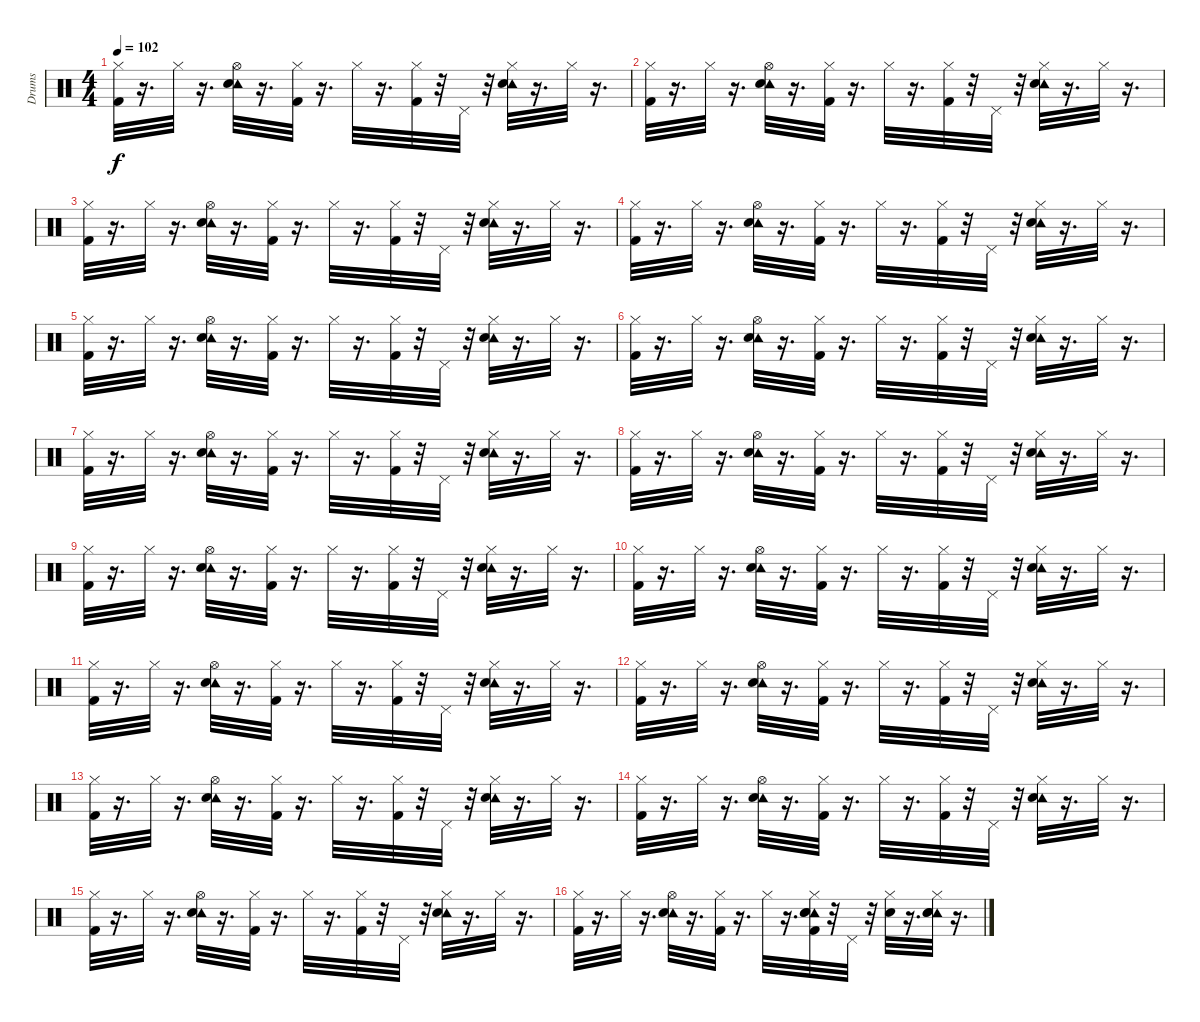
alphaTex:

\track ("Drums" "Drums") {instrument percussion}
\staff {score}
\articulation defaults
\ts (4 4)
\tempo 102
\clef neutral
\ks c
("Hi-Hat (closed)" "Kick (hit) 2").32{dy f} r.16{d} "Hi-Hat (closed)".32 r.16{d} ("Tambourine (hit)" "Hi-Hat (open)" "Electric Snare (hit)").32 r.16{d} ("Hi-Hat (closed)" "Kick (hit) 2").32 r.16{d} "Hi-Hat (closed)".32 r.16{d} ("Hi-Hat (closed)" "Kick (hit) 2").32 r.32 "Pedal Hi-Hat (hit)".32 r.32 ("Tambourine (hit)" "Hi-Hat (closed)" "Electric Snare (hit)").32 r.16{d} "Hi-Hat (closed)".32 r.16{d} |
("Hi-Hat (closed)" "Kick (hit) 2").32 r.16{d} "Hi-Hat (closed)".32 r.16{d} ("Tambourine (hit)" "Hi-Hat (open)" "Electric Snare (hit)").32 r.16{d} ("Hi-Hat (closed)" "Kick (hit) 2").32 r.16{d} "Hi-Hat (closed)".32 r.16{d} ("Hi-Hat (closed)" "Kick (hit) 2").32 r.32 "Pedal Hi-Hat (hit)".32 r.32 ("Tambourine (hit)" "Hi-Hat (closed)" "Electric Snare (hit)").32 r.16{d} "Hi-Hat (closed)".32 r.16{d} |
("Hi-Hat (closed)" "Kick (hit) 2").32 r.16{d} "Hi-Hat (closed)".32 r.16{d} ("Tambourine (hit)" "Hi-Hat (open)" "Electric Snare (hit)").32 r.16{d} ("Hi-Hat (closed)" "Kick (hit) 2").32 r.16{d} "Hi-Hat (closed)".32 r.16{d} ("Hi-Hat (closed)" "Kick (hit) 2").32 r.32 "Pedal Hi-Hat (hit)".32 r.32 ("Tambourine (hit)" "Hi-Hat (closed)" "Electric Snare (hit)").32 r.16{d} "Hi-Hat (closed)".32 r.16{d} |
("Hi-Hat (closed)" "Kick (hit) 2").32 r.16{d} "Hi-Hat (closed)".32 r.16{d} ("Tambourine (hit)" "Hi-Hat (open)" "Electric Snare (hit)").32 r.16{d} ("Hi-Hat (closed)" "Kick (hit) 2").32 r.16{d} "Hi-Hat (closed)".32 r.16{d} ("Hi-Hat (closed)" "Kick (hit) 2").32 r.32 "Pedal Hi-Hat (hit)".32 r.32 ("Tambourine (hit)" "Hi-Hat (closed)" "Electric Snare (hit)").32 r.16{d} "Hi-Hat (closed)".32 r.16{d} |
("Hi-Hat (closed)" "Kick (hit) 2").32 r.16{d} "Hi-Hat (closed)".32 r.16{d} ("Tambourine (hit)" "Hi-Hat (open)" "Electric Snare (hit)").32 r.16{d} ("Hi-Hat (closed)" "Kick (hit) 2").32 r.16{d} "Hi-Hat (closed)".32 r.16{d} ("Hi-Hat (closed)" "Kick (hit) 2").32 r.32 "Pedal Hi-Hat (hit)".32 r.32 ("Tambourine (hit)" "Hi-Hat (closed)" "Electric Snare (hit)").32 r.16{d} "Hi-Hat (closed)".32 r.16{d} |
("Hi-Hat (closed)" "Kick (hit) 2").32 r.16{d} "Hi-Hat (closed)".32 r.16{d} ("Tambourine (hit)" "Hi-Hat (open)" "Electric Snare (hit)").32 r.16{d} ("Hi-Hat (closed)" "Kick (hit) 2").32 r.16{d} "Hi-Hat (closed)".32 r.16{d} ("Hi-Hat (closed)" "Kick (hit) 2").32 r.32 "Pedal Hi-Hat (hit)".32 r.32 ("Tambourine (hit)" "Hi-Hat (closed)" "Electric Snare (hit)").32 r.16{d} "Hi-Hat (closed)".32 r.16{d} |
("Hi-Hat (closed)" "Kick (hit) 2").32 r.16{d} "Hi-Hat (closed)".32 r.16{d} ("Tambourine (hit)" "Hi-Hat (open)" "Electric Snare (hit)").32 r.16{d} ("Hi-Hat (closed)" "Kick (hit) 2").32 r.16{d} "Hi-Hat (closed)".32 r.16{d} ("Hi-Hat (closed)" "Kick (hit) 2").32 r.32 "Pedal Hi-Hat (hit)".32 r.32 ("Tambourine (hit)" "Hi-Hat (closed)" "Electric Snare (hit)").32 r.16{d} "Hi-Hat (closed)".32 r.16{d} |
("Hi-Hat (closed)" "Kick (hit) 2").32 r.16{d} "Hi-Hat (closed)".32 r.16{d} ("Tambourine (hit)" "Hi-Hat (open)" "Electric Snare (hit)").32 r.16{d} ("Hi-Hat (closed)" "Kick (hit) 2").32 r.16{d} "Hi-Hat (closed)".32 r.16{d} ("Hi-Hat (closed)" "Kick (hit) 2").32 r.32 "Pedal Hi-Hat (hit)".32 r.32 ("Tambourine (hit)" "Hi-Hat (closed)" "Electric Snare (hit)").32 r.16{d} "Hi-Hat (closed)".32 r.16{d} |
("Hi-Hat (closed)" "Kick (hit) 2").32 r.16{d} "Hi-Hat (closed)".32 r.16{d} ("Tambourine (hit)" "Hi-Hat (open)" "Electric Snare (hit)").32 r.16{d} ("Hi-Hat (closed)" "Kick (hit) 2").32 r.16{d} "Hi-Hat (closed)".32 r.16{d} ("Hi-Hat (closed)" "Kick (hit) 2").32 r.32 "Pedal Hi-Hat (hit)".32 r.32 ("Tambourine (hit)" "Hi-Hat (closed)" "Electric Snare (hit)").32 r.16{d} "Hi-Hat (closed)".32 r.16{d} |
("Hi-Hat (closed)" "Kick (hit) 2").32 r.16{d} "Hi-Hat (closed)".32 r.16{d} ("Tambourine (hit)" "Hi-Hat (open)" "Electric Snare (hit)").32 r.16{d} ("Hi-Hat (closed)" "Kick (hit) 2").32 r.16{d} "Hi-Hat (closed)".32 r.16{d} ("Hi-Hat (closed)" "Kick (hit) 2").32 r.32 "Pedal Hi-Hat (hit)".32 r.32 ("Tambourine (hit)" "Hi-Hat (closed)" "Electric Snare (hit)").32 r.16{d} "Hi-Hat (closed)".32 r.16{d} |
("Hi-Hat (closed)" "Kick (hit) 2").32 r.16{d} "Hi-Hat (closed)".32 r.16{d} ("Tambourine (hit)" "Hi-Hat (open)" "Electric Snare (hit)").32 r.16{d} ("Hi-Hat (closed)" "Kick (hit) 2").32 r.16{d} "Hi-Hat (closed)".32 r.16{d} ("Hi-Hat (closed)" "Kick (hit) 2").32 r.32 "Pedal Hi-Hat (hit)".32 r.32 ("Tambourine (hit)" "Hi-Hat (closed)" "Electric Snare (hit)").32 r.16{d} "Hi-Hat (closed)".32 r.16{d} |
("Hi-Hat (closed)" "Kick (hit) 2").32 r.16{d} "Hi-Hat (closed)".32 r.16{d} ("Tambourine (hit)" "Hi-Hat (open)" "Electric Snare (hit)").32 r.16{d} ("Hi-Hat (closed)" "Kick (hit) 2").32 r.16{d} "Hi-Hat (closed)".32 r.16{d} ("Hi-Hat (closed)" "Kick (hit) 2").32 r.32 "Pedal Hi-Hat (hit)".32 r.32 ("Tambourine (hit)" "Hi-Hat (closed)" "Electric Snare (hit)").32 r.16{d} "Hi-Hat (closed)".32 r.16{d} |
("Hi-Hat (closed)" "Kick (hit) 2").32 r.16{d} "Hi-Hat (closed)".32 r.16{d} ("Tambourine (hit)" "Hi-Hat (open)" "Electric Snare (hit)").32 r.16{d} ("Hi-Hat (closed)" "Kick (hit) 2").32 r.16{d} "Hi-Hat (closed)".32 r.16{d} ("Hi-Hat (closed)" "Kick (hit) 2").32 r.32 "Pedal Hi-Hat (hit)".32 r.32 ("Tambourine (hit)" "Hi-Hat (closed)" "Electric Snare (hit)").32 r.16{d} "Hi-Hat (closed)".32 r.16{d} |
("Hi-Hat (closed)" "Kick (hit) 2").32 r.16{d} "Hi-Hat (closed)".32 r.16{d} ("Tambourine (hit)" "Hi-Hat (open)" "Electric Snare (hit)").32 r.16{d} ("Hi-Hat (closed)" "Kick (hit) 2").32 r.16{d} "Hi-Hat (closed)".32 r.16{d} ("Hi-Hat (closed)" "Kick (hit) 2").32 r.32 "Pedal Hi-Hat (hit)".32 r.32 ("Tambourine (hit)" "Hi-Hat (closed)" "Electric Snare (hit)").32 r.16{d} "Hi-Hat (closed)".32 r.16{d} |
("Hi-Hat (closed)" "Kick (hit) 2").32 r.16{d} "Hi-Hat (closed)".32 r.16{d} ("Tambourine (hit)" "Hi-Hat (open)" "Electric Snare (hit)").32 r.16{d} ("Hi-Hat (closed)" "Kick (hit) 2").32 r.16{d} "Hi-Hat (closed)".32 r.16{d} ("Hi-Hat (closed)" "Kick (hit) 2").32 r.32 "Pedal Hi-Hat (hit)".32 r.32 ("Tambourine (hit)" "Hi-Hat (closed)" "Electric Snare (hit)").32 r.16{d} "Hi-Hat (closed)".32 r.16{d} |
("Hi-Hat (closed)" "Kick (hit) 2").32 r.16{d} "Hi-Hat (closed)".32 r.16{d} ("Tambourine (hit)" "Hi-Hat (open)" "Electric Snare (hit)").32 r.16{d} ("Hi-Hat (closed)" "Kick (hit) 2").32 r.16{d} "Hi-Hat (closed)".32 r.16{d} ("Tambourine (hit)" "Electric Snare (hit)" "Snare (hit) 2" "Hi-Hat (closed)" "Kick (hit) 2").32 r.32 "Pedal Hi-Hat (hit)".32 r.32 ("Hi-Hat (closed)" "Electric Snare (hit)").32 r.16{d} ("Tambourine (hit)" "Electric Snare (hit)" "Snare (hit) 2" "Hi-Hat (closed)").32 r.16{d}
